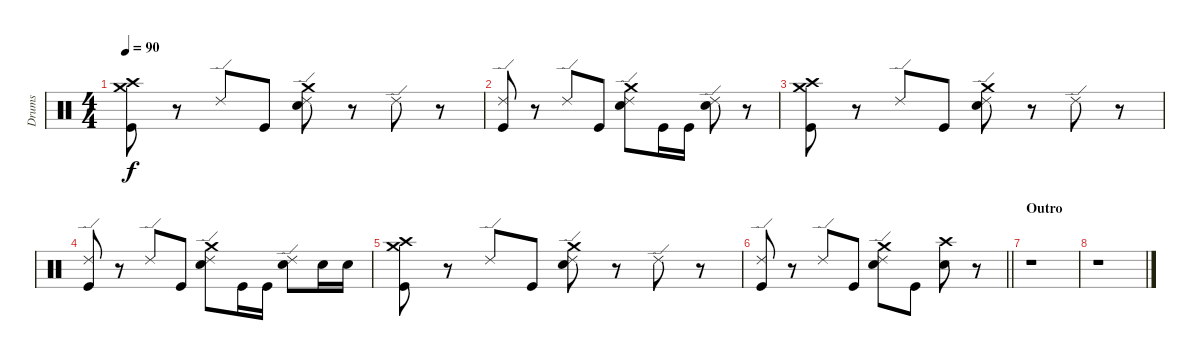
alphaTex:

\track ("Drums" "Drums") {instrument percussion}
\staff {score}
\articulation defaults
\ts (4 4)
\tempo 90
\clef neutral
\ks c
("Crash high (hit)" "Kick (hit)" "Crash medium (hit)").8{dy f} r.8 "Ride (edge) 2".8 "Kick (hit)".8 ("Ride (edge) 2" "Snare (hit) 2" "Crash medium (hit)").8 r.8 "Ride (edge) 2".8 r.8 |
("Ride (edge) 2" "Kick (hit)").8 r.8 "Ride (edge) 2".8 "Kick (hit)".8 ("Ride (edge) 2" "Snare (hit) 2" "Crash medium (hit)").8 "Kick (hit)".16 "Kick (hit)".16 ("Ride (edge) 2" "Snare (hit) 2").8 r.8 |
("Crash high (hit)" "Kick (hit)" "Crash medium (hit)").8 r.8 "Ride (edge) 2".8 "Kick (hit)".8 ("Ride (edge) 2" "Snare (hit) 2" "Crash medium (hit)").8 r.8 "Ride (edge) 2".8 r.8 |
("Ride (edge) 2" "Kick (hit)").8 r.8 "Ride (edge) 2".8 "Kick (hit)".8 ("Ride (edge) 2" "Snare (hit) 2" "Crash medium (hit)").8 "Kick (hit)".16 "Kick (hit)".16 ("Ride (edge) 2" "Snare (hit) 2").8 "Snare (hit) 2".16 "Snare (hit) 2".16 |
("Crash high (hit)" "Kick (hit)" "Crash medium (hit)").8 r.8 "Ride (edge) 2".8 "Kick (hit)".8 ("Ride (edge) 2" "Snare (hit) 2" "Crash medium (hit)").8 r.8 "Ride (edge) 2".8 r.8 |
\barLineRight lightlight
("Ride (edge) 2" "Kick (hit)").8 r.8 "Ride (edge) 2".8 "Kick (hit)".8 ("Ride (edge) 2" "Snare (hit) 2" "Crash medium (hit)").8 "Kick (hit)".8 ("Crash high (hit)" "Snare (hit) 2").8 r.8 |
\section ("" "Outro")
r.1 |
r.1
